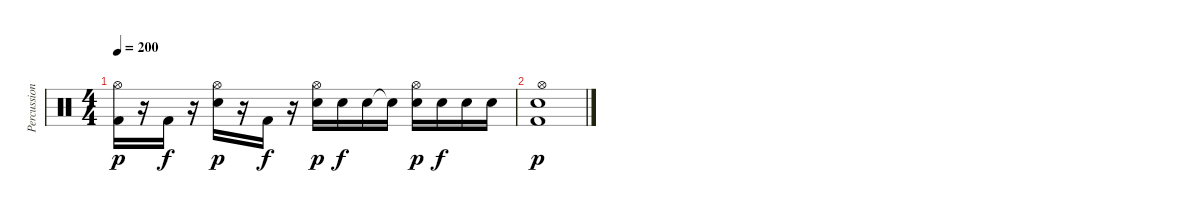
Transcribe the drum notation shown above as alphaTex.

\track ("Percussion" "Percussion") {instrument percussion}
\staff {score}
\articulation defaults
\ts (4 4)
\tempo 200
\clef neutral
\ks c
("Kick (hit) 2" "Hi-Hat (open)").16{dy p} r.16 "Kick (hit) 2".16{dy f} r.16 ("Electric Snare (hit)" "Hi-Hat (open)").16{dy p} r.16 "Kick (hit) 2".16{dy f} r.16 ("Electric Snare (hit)" "Hi-Hat (open)").16{dy p} "Electric Snare (hit)".16{dy f} "Electric Snare (hit)".16 "Electric Snare (hit)"{t}.16 ("Electric Snare (hit)" "Hi-Hat (open)").16{dy p} "Electric Snare (hit)".16{dy f} "Electric Snare (hit)".16 "Electric Snare (hit)".16 |
("Electric Snare (hit)" "Kick (hit) 2" "Hi-Hat (open)").1{dy p}
